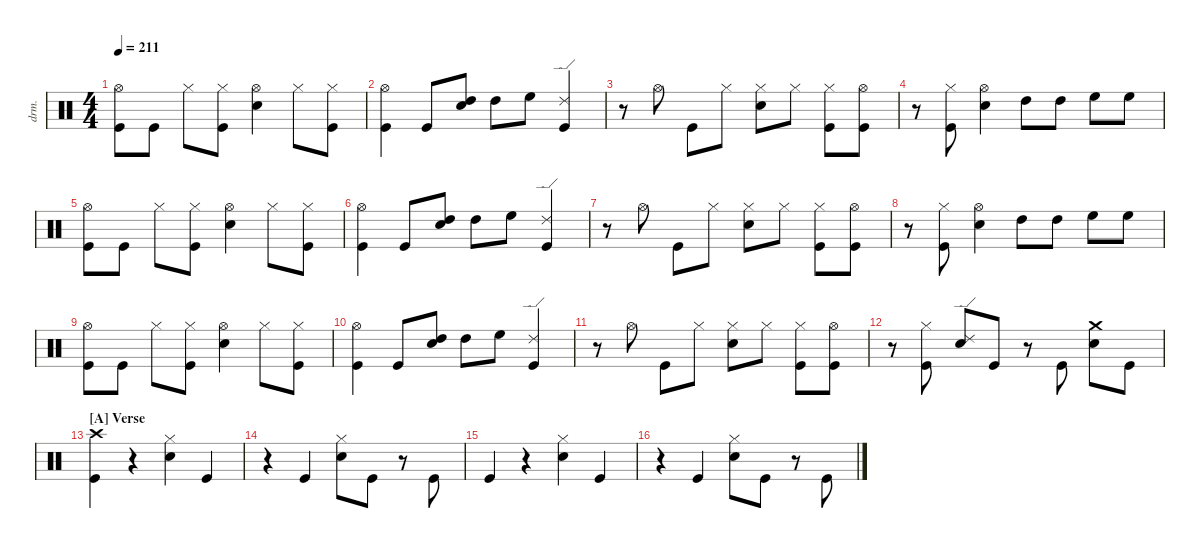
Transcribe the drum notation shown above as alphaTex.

\defaultSystemsLayout 4
\hideDynamics
\bracketExtendMode nobrackets
\track ("Drums" "drm.") {instrument percussion}
\staff {score}
\articulation defaults
\ts (4 4)
\tempo 211
\clef neutral
\ks c
("Kick (hit)" "Hi-Hat (open)"{acc #}).8{dy f beam Down} "Kick (hit)".8{dy fff beam Down} "Hi-Hat (closed)"{acc #}.8{dy ff beam Down} ("Kick (hit)" "Hi-Hat (closed)"{acc #}).8{beam Down} ("Snare (hit) 2" "Hi-Hat (open)"{acc #}).4{beam Down} "Hi-Hat (closed)"{acc #}.8{beam Down} ("Kick (hit)" "Hi-Hat (closed)"{acc #}).8{dy f beam Down} |
("Kick (hit)" "Hi-Hat (open)"{acc #}).4{dy fff beam Down} "Kick (hit)".8{dy ff beam Up} ("Snare (hit) 2" "High Tom (hit)").8{beam Up} "High Tom (hit)".8{dy mp beam Down} "High Floor Tom (hit)".8{dy ff beam Down} ("Kick (hit)" "Ride (edge) 2").4{beam Up} |
r.8{beam Down} "Hi-Hat (open)"{acc #}.8{beam Down} "Kick (hit)".8{beam Down} "Hi-Hat (closed)"{acc #}.8{dy p beam Down} ("Snare (hit) 2" "Hi-Hat (closed)"{acc #}).8{dy ff beam Down} "Hi-Hat (closed)"{acc #}.8{dy mp beam Down} ("Kick (hit)" "Hi-Hat (closed)"{acc #}).8{dy f beam Down} ("Kick (hit)" "Hi-Hat (open)"{acc #}).8{dy fff beam Down} |
r.8{beam Down} ("Kick (hit)" "Hi-Hat (closed)"{acc #}).8{dy ff beam Down} ("Snare (hit) 2" "Hi-Hat (open)"{acc #}).4{beam Down} "High Tom (hit)".8{beam Down} "High Tom (hit)".8{dy f beam Down} "High Floor Tom (hit)".8{dy ff beam Down} "High Floor Tom (hit)".8{dy f beam Down} |
("Kick (hit)" "Hi-Hat (open)"{acc #}).8{beam Down} "Kick (hit)".8{dy fff beam Down} "Hi-Hat (closed)"{acc #}.8{dy ff beam Down} ("Kick (hit)" "Hi-Hat (closed)"{acc #}).8{beam Down} ("Snare (hit) 2" "Hi-Hat (open)"{acc #}).4{beam Down} "Hi-Hat (closed)"{acc #}.8{beam Down} ("Kick (hit)" "Hi-Hat (closed)"{acc #}).8{dy f beam Down} |
("Kick (hit)" "Hi-Hat (open)"{acc #}).4{dy fff beam Down} "Kick (hit)".8{dy ff beam Up} ("Snare (hit) 2" "High Tom (hit)").8{beam Up} "High Tom (hit)".8{dy mp beam Down} "High Floor Tom (hit)".8{dy ff beam Down} ("Kick (hit)" "Ride (edge) 2").4{beam Up} |
r.8{beam Down} "Hi-Hat (open)"{acc #}.8{beam Down} "Kick (hit)".8{beam Down} "Hi-Hat (closed)"{acc #}.8{dy mp beam Down} ("Snare (hit) 2" "Hi-Hat (closed)"{acc #}).8{dy ff beam Down} "Hi-Hat (closed)"{acc #}.8{dy mp beam Down} ("Kick (hit)" "Hi-Hat (closed)"{acc #}).8{dy ff beam Down} ("Kick (hit)" "Hi-Hat (open)"{acc #}).8{beam Down} |
r.8{beam Down} ("Kick (hit)" "Hi-Hat (closed)"{acc #}).8{beam Down} ("Snare (hit) 2" "Hi-Hat (open)"{acc #}).4{beam Down} "High Tom (hit)".8{beam Down} "High Tom (hit)".8{dy f beam Down} "High Floor Tom (hit)".8{dy ff beam Down} "High Floor Tom (hit)".8{dy f beam Down} |
("Kick (hit)" "Hi-Hat (open)"{acc #}).8{beam Down} "Kick (hit)".8{dy fff beam Down} "Hi-Hat (closed)"{acc #}.8{dy ff beam Down} ("Kick (hit)" "Hi-Hat (closed)"{acc #}).8{beam Down} ("Snare (hit) 2" "Hi-Hat (open)"{acc #}).4{beam Down} "Hi-Hat (closed)"{acc #}.8{beam Down} ("Kick (hit)" "Hi-Hat (closed)"{acc #}).8{dy f beam Down} |
("Kick (hit)" "Hi-Hat (open)"{acc #}).4{dy fff beam Down} "Kick (hit)".8{dy ff beam Up} ("Snare (hit) 2" "High Tom (hit)").8{beam Up} "High Tom (hit)".8{dy mp beam Down} "High Floor Tom (hit)".8{dy ff beam Down} ("Kick (hit)" "Ride (edge) 2").4{beam Up} |
r.8{beam Down} "Hi-Hat (open)"{acc #}.8{beam Down} "Kick (hit)".8{beam Down} "Hi-Hat (closed)"{acc #}.8{dy p beam Down} ("Snare (hit) 2" "Hi-Hat (closed)"{acc #}).8{dy ff beam Down} "Hi-Hat (closed)"{acc #}.8{dy mp beam Down} ("Kick (hit)" "Hi-Hat (closed)"{acc #}).8{dy ff beam Down} ("Kick (hit)" "Hi-Hat (open)"{acc #}).8{beam Down} |
r.8{beam Down} ("Kick (hit)" "Hi-Hat (closed)"{acc #}).8{beam Down} ("Snare (hit) 2" "Ride (edge) 2").8{beam Up} "Kick (hit)".8{beam Up} r.8{beam Down} "Kick (hit)".8{beam Up} ("Snare (hit) 2" "Crash medium (hit)").8{beam Down} "Kick (hit)".8{dy f beam Down} |
\section ("A" "Verse")
("Kick (hit)" "Crash high (hit)"{acc #}).4{dy fff beam Down} r.4{beam Down} ("Snare (hit) 2" "Hi-Hat (closed)"{acc #}).4{dy ff beam Down} "Kick (hit)".4{beam Up} |
r.4{beam Down} "Kick (hit)".4{beam Up} ("Snare (hit) 2" "Hi-Hat (closed)"{acc #}).8{beam Down} "Kick (hit)".8{beam Down} r.8{beam Down} "Kick (hit)".8{dy mp beam Up} |
"Kick (hit)".4{dy fff beam Up} r.4{beam Down} ("Snare (hit) 2" "Hi-Hat (closed)"{acc #}).4{dy ff beam Down} "Kick (hit)".4{beam Up} |
r.4{beam Down} "Kick (hit)".4{beam Up} ("Snare (hit) 2" "Hi-Hat (closed)"{acc #}).8{beam Down} "Kick (hit)".8{beam Down} r.8{beam Down} "Kick (hit)".8{dy mp beam Up}
